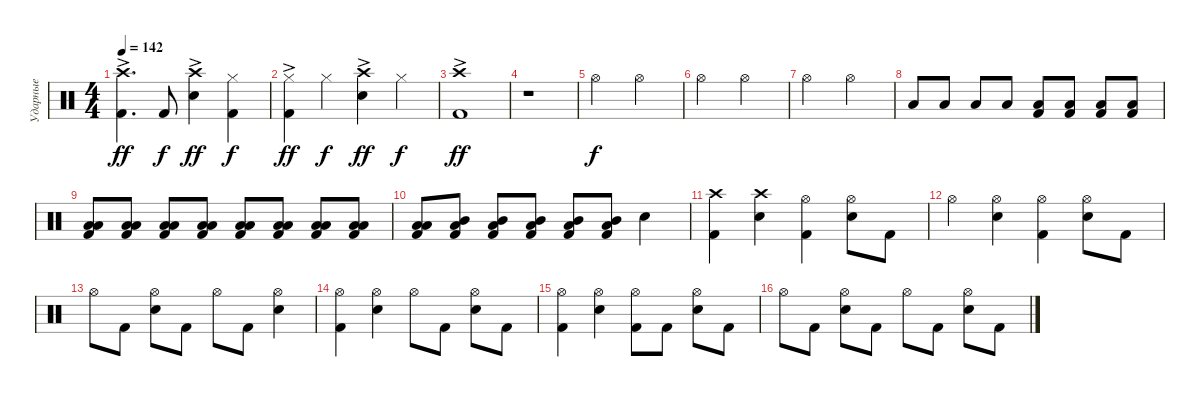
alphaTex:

\track ("Ударные" "Ударные") {instrument percussion}
\staff {score}
\articulation defaults
\ts (4 4)
\tempo 142
\clef neutral
\ks c
("Kick (hit) 2" "Crash high (hit)"{ac}).4{d dy ff} "Kick (hit) 2".8{dy f} ("Snare (hit) 2" "Crash high (hit)"{ac}).4{dy ff} ("Kick (hit) 2" "Hi-Hat (closed)").4{dy f} |
("Kick (hit) 2" "Hi-Hat (closed)"{ac}).4{dy ff} "Hi-Hat (closed)".4{dy f} ("Snare (hit) 2" "Crash high (hit)"{ac}).4{dy ff} "Hi-Hat (closed)".4{dy f} |
("Kick (hit) 2" "Crash high (hit)"{ac}).1{dy ff} |
r.1 |
"Hi-Hat (open)".2{dy f} "Hi-Hat (open)".2 |
"Hi-Hat (open)".2 "Hi-Hat (open)".2 |
"Hi-Hat (open)".2 "Hi-Hat (open)".2 |
"Low Floor Tom (hit)".8 "Low Floor Tom (hit)".8 "Low Floor Tom (hit)".8 "Low Floor Tom (hit)".8 ("Kick (hit) 2" "Low Tom (hit)").8 ("Kick (hit) 2" "Low Tom (hit)").8 ("Kick (hit) 2" "Low Tom (hit)").8 ("Kick (hit) 2" "Low Tom (hit)").8 |
("Kick (hit) 2" "Low Tom (hit)" "Low Floor Tom (hit)").8 ("Kick (hit) 2" "Low Tom (hit)" "Low Floor Tom (hit)").8 ("Kick (hit) 2" "Low Tom (hit)" "Low Floor Tom (hit)").8 ("Kick (hit) 2" "Low Tom (hit)" "Low Floor Tom (hit)").8 ("Kick (hit) 2" "Low Tom (hit)" "Low Floor Tom (hit)").8 ("Kick (hit) 2" "Low Tom (hit)" "Low Floor Tom (hit)").8 ("Kick (hit) 2" "Low Tom (hit)" "Low Floor Tom (hit)").8 ("Kick (hit) 2" "Low Tom (hit)" "Low Floor Tom (hit)").8 |
("Kick (hit) 2" "Low Tom (hit)" "Low Floor Tom (hit)").8 ("Kick (hit) 2" "Mid Tom (hit)" "Low Floor Tom (hit)").8 ("Kick (hit) 2" "Mid Tom (hit)" "Low Floor Tom (hit)").8 ("Kick (hit) 2" "Mid Tom (hit)" "Low Floor Tom (hit)").8 ("Kick (hit) 2" "Mid Tom (hit)" "Low Floor Tom (hit)").8 ("Kick (hit) 2" "Mid Tom (hit)" "Low Floor Tom (hit)").8 "Snare (hit) 2".4 |
("Kick (hit) 2" "Crash high (hit)").4 ("Snare (hit) 2" "Crash high (hit)").4 ("Kick (hit) 2" "Hi-Hat (open)").4 ("Snare (hit) 2" "Hi-Hat (open)").8 "Kick (hit) 2".8 |
"Hi-Hat (open)".4 ("Snare (hit) 2" "Hi-Hat (open)").4 ("Kick (hit) 2" "Hi-Hat (open)").4 ("Snare (hit) 2" "Hi-Hat (open)").8 "Kick (hit) 2".8 |
"Hi-Hat (open)".8 "Kick (hit) 2".8 ("Snare (hit) 2" "Hi-Hat (open)").8 "Kick (hit) 2".8 "Hi-Hat (open)".8 "Kick (hit) 2".8 ("Snare (hit) 2" "Hi-Hat (open)").4 |
("Kick (hit) 2" "Hi-Hat (open)").4 ("Snare (hit) 2" "Hi-Hat (open)").4 "Hi-Hat (open)".8 "Kick (hit) 2".8 ("Snare (hit) 2" "Hi-Hat (open)").8 "Kick (hit) 2".8 |
("Kick (hit) 2" "Hi-Hat (open)").4 ("Snare (hit) 2" "Hi-Hat (open)").4 ("Kick (hit) 2" "Hi-Hat (open)").8 "Kick (hit) 2".8 ("Snare (hit) 2" "Hi-Hat (open)").8 "Kick (hit) 2".8 |
"Hi-Hat (open)".8 "Kick (hit) 2".8 ("Snare (hit) 2" "Hi-Hat (open)").8 "Kick (hit) 2".8 "Hi-Hat (open)".8 "Kick (hit) 2".8 ("Snare (hit) 2" "Hi-Hat (open)").8 "Kick (hit) 2".8
